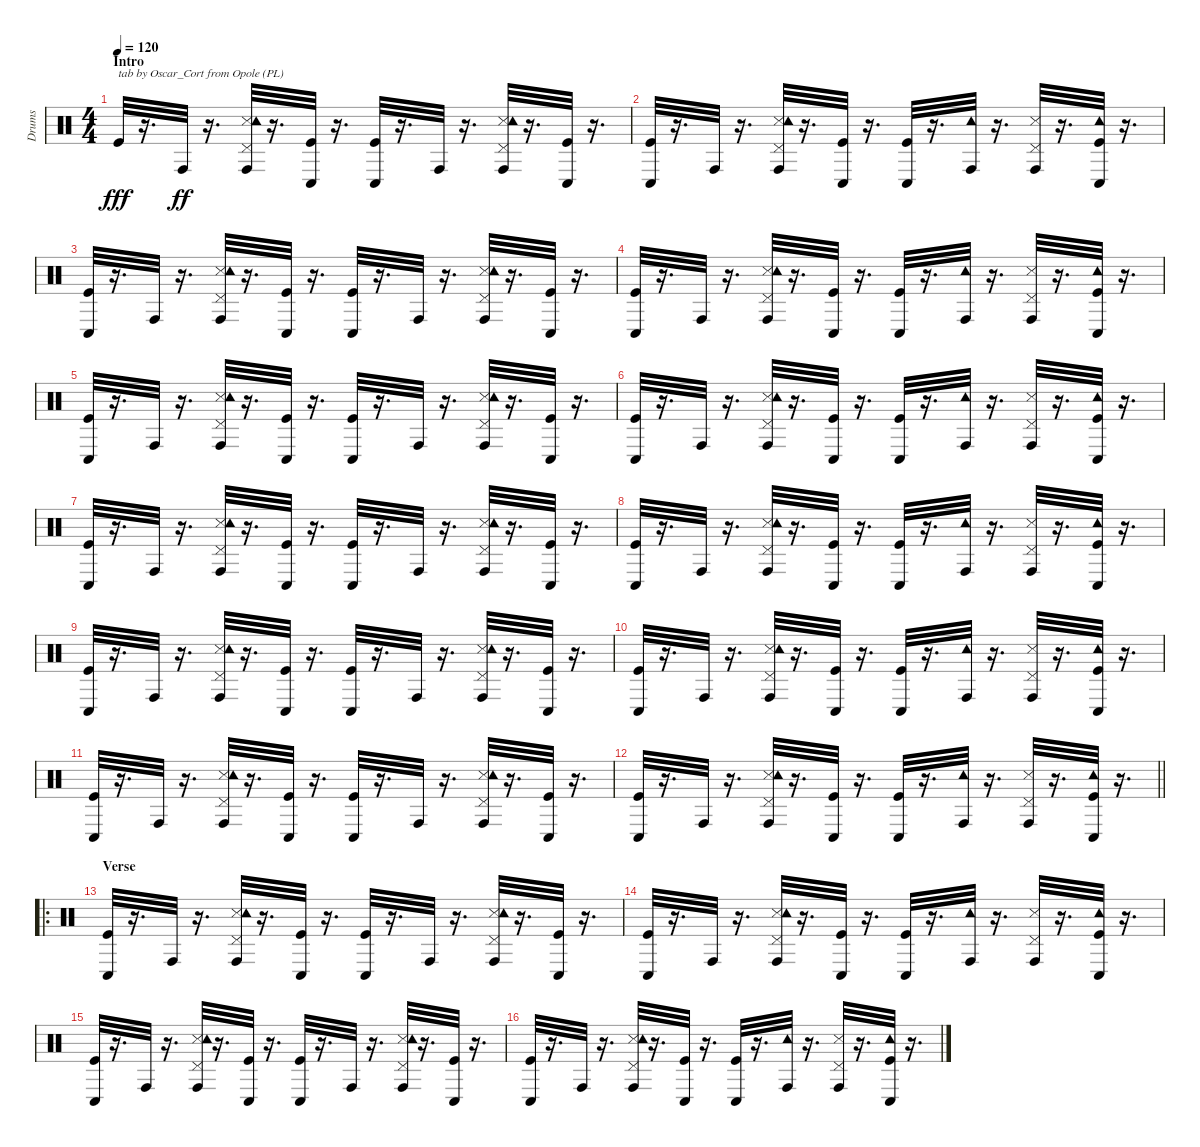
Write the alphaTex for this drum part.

\track ("Drums" "Drums") {instrument percussion}
\staff {score}
\articulation defaults
\ts (4 4)
\section ("" "Intro")
\tempo 120
\clef neutral
\ks c "Kick (hit)".32{txt "tab by Oscar_Cort from Opole (PL)" dy fff balance 8}
r.16{d} "Conga high (hit)".32{dy ff} r.16{d} ("Snare (side stick) 3" "Pedal Hi-Hat (hit)" "Tambourine (hit)" "Conga high (hit)").32 r.16{d} ("Kick (hit)" "Conga low (hit)").32 r.16{d} ("Kick (hit)" "Conga low (hit)").32 r.16{d} "Conga high (hit)".32 r.16{d} ("Snare (side stick) 3" "Pedal Hi-Hat (hit)" "Tambourine (hit)" "Conga high (hit)").32 r.16{d} ("Kick (hit)" "Conga low (hit)").32 r.16{d} |
("Kick (hit)" "Conga low (hit)").32 r.16{d} "Conga high (hit)".32 r.16{d} ("Snare (side stick) 3" "Pedal Hi-Hat (hit)" "Tambourine (hit)" "Conga high (hit)").32 r.16{d} ("Kick (hit)" "Conga low (hit)").32 r.16{d} ("Kick (hit)" "Conga low (hit)").32 r.16{d} ("Tambourine (hit)" "Conga high (hit)").32 r.16{d} ("Snare (side stick) 3" "Pedal Hi-Hat (hit)" "Conga high (hit)").32 r.16{d} ("Kick (hit)" "Tambourine (hit)" "Conga low (hit)").32 r.16{d} |
("Kick (hit)" "Conga low (hit)").32 r.16{d} "Conga high (hit)".32 r.16{d} ("Snare (side stick) 3" "Pedal Hi-Hat (hit)" "Tambourine (hit)" "Conga high (hit)").32 r.16{d} ("Kick (hit)" "Conga low (hit)").32 r.16{d} ("Kick (hit)" "Conga low (hit)").32 r.16{d} "Conga high (hit)".32 r.16{d} ("Snare (side stick) 3" "Pedal Hi-Hat (hit)" "Tambourine (hit)" "Conga high (hit)").32 r.16{d} ("Kick (hit)" "Conga low (hit)").32 r.16{d} |
("Kick (hit)" "Conga low (hit)").32 r.16{d} "Conga high (hit)".32 r.16{d} ("Snare (side stick) 3" "Pedal Hi-Hat (hit)" "Tambourine (hit)" "Conga high (hit)").32 r.16{d} ("Kick (hit)" "Conga low (hit)").32 r.16{d} ("Kick (hit)" "Conga low (hit)").32 r.16{d} ("Tambourine (hit)" "Conga high (hit)").32 r.16{d} ("Snare (side stick) 3" "Pedal Hi-Hat (hit)" "Conga high (hit)").32 r.16{d} ("Kick (hit)" "Tambourine (hit)" "Conga low (hit)").32 r.16{d} |
("Kick (hit)" "Conga low (hit)").32 r.16{d} "Conga high (hit)".32 r.16{d} ("Snare (side stick) 3" "Pedal Hi-Hat (hit)" "Tambourine (hit)" "Conga high (hit)").32 r.16{d} ("Kick (hit)" "Conga low (hit)").32 r.16{d} ("Kick (hit)" "Conga low (hit)").32 r.16{d} "Conga high (hit)".32 r.16{d} ("Snare (side stick) 3" "Pedal Hi-Hat (hit)" "Tambourine (hit)" "Conga high (hit)").32 r.16{d} ("Kick (hit)" "Conga low (hit)").32 r.16{d} |
("Kick (hit)" "Conga low (hit)").32 r.16{d} "Conga high (hit)".32 r.16{d} ("Snare (side stick) 3" "Pedal Hi-Hat (hit)" "Tambourine (hit)" "Conga high (hit)").32 r.16{d} ("Kick (hit)" "Conga low (hit)").32 r.16{d} ("Kick (hit)" "Conga low (hit)").32 r.16{d} ("Tambourine (hit)" "Conga high (hit)").32 r.16{d} ("Snare (side stick) 3" "Pedal Hi-Hat (hit)" "Conga high (hit)").32 r.16{d} ("Kick (hit)" "Tambourine (hit)" "Conga low (hit)").32 r.16{d} |
("Kick (hit)" "Conga low (hit)").32 r.16{d} "Conga high (hit)".32 r.16{d} ("Snare (side stick) 3" "Pedal Hi-Hat (hit)" "Tambourine (hit)" "Conga high (hit)").32 r.16{d} ("Kick (hit)" "Conga low (hit)").32 r.16{d} ("Kick (hit)" "Conga low (hit)").32 r.16{d} "Conga high (hit)".32 r.16{d} ("Snare (side stick) 3" "Pedal Hi-Hat (hit)" "Tambourine (hit)" "Conga high (hit)").32 r.16{d} ("Kick (hit)" "Conga low (hit)").32 r.16{d} |
("Kick (hit)" "Conga low (hit)").32 r.16{d} "Conga high (hit)".32 r.16{d} ("Snare (side stick) 3" "Pedal Hi-Hat (hit)" "Tambourine (hit)" "Conga high (hit)").32 r.16{d} ("Kick (hit)" "Conga low (hit)").32 r.16{d} ("Kick (hit)" "Conga low (hit)").32 r.16{d} ("Tambourine (hit)" "Conga high (hit)").32 r.16{d} ("Snare (side stick) 3" "Pedal Hi-Hat (hit)" "Conga high (hit)").32 r.16{d} ("Kick (hit)" "Tambourine (hit)" "Conga low (hit)").32 r.16{d} |
("Kick (hit)" "Conga low (hit)").32 r.16{d} "Conga high (hit)".32 r.16{d} ("Snare (side stick) 3" "Pedal Hi-Hat (hit)" "Tambourine (hit)" "Conga high (hit)").32 r.16{d} ("Kick (hit)" "Conga low (hit)").32 r.16{d} ("Kick (hit)" "Conga low (hit)").32 r.16{d} "Conga high (hit)".32 r.16{d} ("Snare (side stick) 3" "Pedal Hi-Hat (hit)" "Tambourine (hit)" "Conga high (hit)").32 r.16{d} ("Kick (hit)" "Conga low (hit)").32 r.16{d} |
("Kick (hit)" "Conga low (hit)").32 r.16{d} "Conga high (hit)".32 r.16{d} ("Snare (side stick) 3" "Pedal Hi-Hat (hit)" "Tambourine (hit)" "Conga high (hit)").32 r.16{d} ("Kick (hit)" "Conga low (hit)").32 r.16{d} ("Kick (hit)" "Conga low (hit)").32 r.16{d} ("Tambourine (hit)" "Conga high (hit)").32 r.16{d} ("Snare (side stick) 3" "Pedal Hi-Hat (hit)" "Conga high (hit)").32 r.16{d} ("Kick (hit)" "Tambourine (hit)" "Conga low (hit)").32 r.16{d} |
("Kick (hit)" "Conga low (hit)").32 r.16{d} "Conga high (hit)".32 r.16{d} ("Snare (side stick) 3" "Pedal Hi-Hat (hit)" "Tambourine (hit)" "Conga high (hit)").32 r.16{d} ("Kick (hit)" "Conga low (hit)").32 r.16{d} ("Kick (hit)" "Conga low (hit)").32 r.16{d} "Conga high (hit)".32 r.16{d} ("Snare (side stick) 3" "Pedal Hi-Hat (hit)" "Tambourine (hit)" "Conga high (hit)").32 r.16{d} ("Kick (hit)" "Conga low (hit)").32 r.16{d} |
\barLineRight lightlight
("Kick (hit)" "Conga low (hit)").32 r.16{d} "Conga high (hit)".32 r.16{d} ("Snare (side stick) 3" "Pedal Hi-Hat (hit)" "Tambourine (hit)" "Conga high (hit)").32 r.16{d} ("Kick (hit)" "Conga low (hit)").32 r.16{d} ("Kick (hit)" "Conga low (hit)").32 r.16{d} ("Tambourine (hit)" "Conga high (hit)").32 r.16{d} ("Snare (side stick) 3" "Pedal Hi-Hat (hit)" "Conga high (hit)").32 r.16{d} ("Kick (hit)" "Tambourine (hit)" "Conga low (hit)").32 r.16{d} |
\ro
\section ("" "Verse")
("Kick (hit)" "Conga low (hit)").32 r.16{d} "Conga high (hit)".32 r.16{d} ("Snare (side stick) 3" "Pedal Hi-Hat (hit)" "Tambourine (hit)" "Conga high (hit)").32 r.16{d} ("Kick (hit)" "Conga low (hit)").32 r.16{d} ("Kick (hit)" "Conga low (hit)").32 r.16{d} "Conga high (hit)".32 r.16{d} ("Snare (side stick) 3" "Pedal Hi-Hat (hit)" "Tambourine (hit)" "Conga high (hit)").32 r.16{d} ("Kick (hit)" "Conga low (hit)").32 r.16{d} |
("Kick (hit)" "Conga low (hit)").32 r.16{d} "Conga high (hit)".32 r.16{d} ("Snare (side stick) 3" "Pedal Hi-Hat (hit)" "Tambourine (hit)" "Conga high (hit)").32 r.16{d} ("Kick (hit)" "Conga low (hit)").32 r.16{d} ("Kick (hit)" "Conga low (hit)").32 r.16{d} ("Tambourine (hit)" "Conga high (hit)").32 r.16{d} ("Snare (side stick) 3" "Pedal Hi-Hat (hit)" "Conga high (hit)").32 r.16{d} ("Kick (hit)" "Tambourine (hit)" "Conga low (hit)").32 r.16{d} |
("Kick (hit)" "Conga low (hit)").32 r.16{d} "Conga high (hit)".32 r.16{d} ("Snare (side stick) 3" "Pedal Hi-Hat (hit)" "Tambourine (hit)" "Conga high (hit)").32 r.16{d} ("Kick (hit)" "Conga low (hit)").32 r.16{d} ("Kick (hit)" "Conga low (hit)").32 r.16{d} "Conga high (hit)".32 r.16{d} ("Snare (side stick) 3" "Pedal Hi-Hat (hit)" "Tambourine (hit)" "Conga high (hit)").32 r.16{d} ("Kick (hit)" "Conga low (hit)").32 r.16{d} |
("Kick (hit)" "Conga low (hit)").32 r.16{d} "Conga high (hit)".32 r.16{d} ("Snare (side stick) 3" "Pedal Hi-Hat (hit)" "Tambourine (hit)" "Conga high (hit)").32 r.16{d} ("Kick (hit)" "Conga low (hit)").32 r.16{d} ("Kick (hit)" "Conga low (hit)").32 r.16{d} ("Tambourine (hit)" "Conga high (hit)").32 r.16{d} ("Snare (side stick) 3" "Pedal Hi-Hat (hit)" "Conga high (hit)").32 r.16{d} ("Kick (hit)" "Tambourine (hit)" "Conga low (hit)").32 r.16{d}
